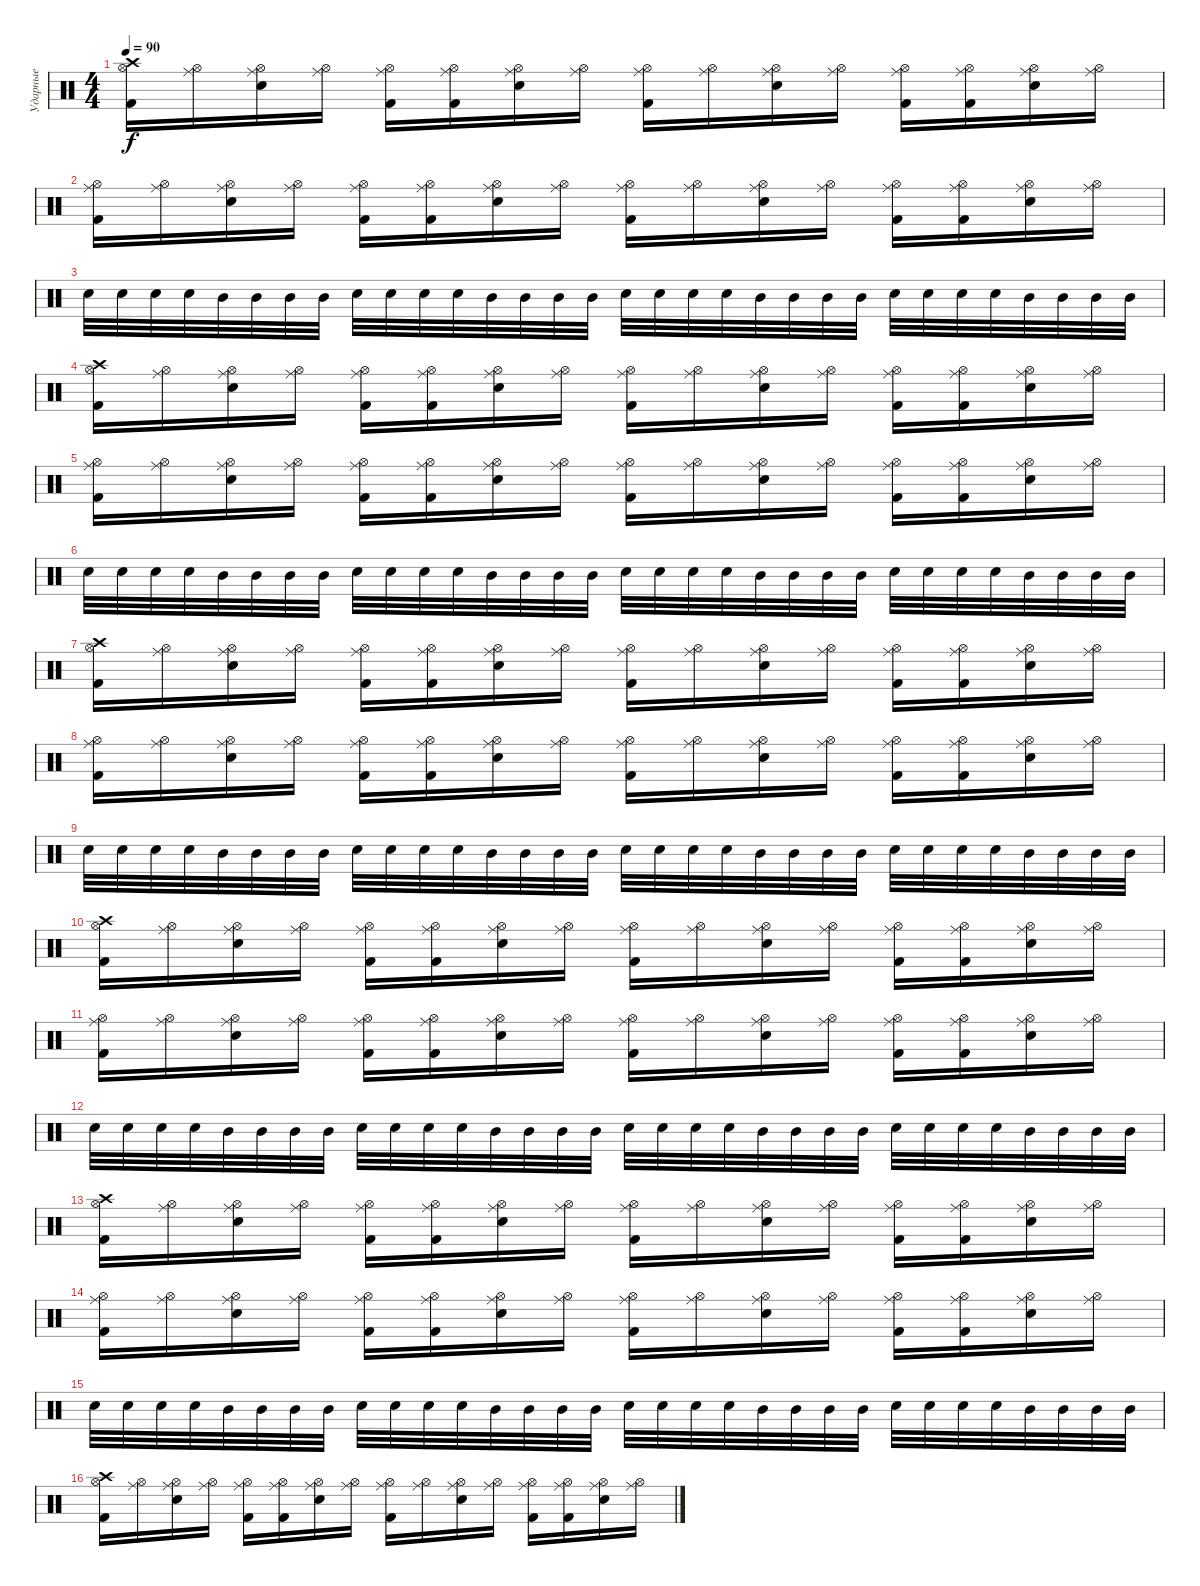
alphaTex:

\track ("Ударные" "Ударные") {instrument percussion}
\staff {score}
\articulation defaults
\ts (4 4)
\tempo 90
\clef neutral
\ks c
("Kick (hit) 2" "Crash high (hit)" "Hi-Hat (open)").16{dy f} ("Ride (middle)" "Hi-Hat (open)").16 ("Electric Snare (hit)" "Ride (middle)" "Hi-Hat (open)").16 ("Ride (middle)" "Hi-Hat (open)").16 ("Kick (hit) 2" "Ride (middle)" "Hi-Hat (open)").16 ("Kick (hit) 2" "Ride (middle)" "Hi-Hat (open)").16 ("Electric Snare (hit)" "Ride (middle)" "Hi-Hat (open)").16 ("Ride (middle)" "Hi-Hat (open)").16 ("Kick (hit) 2" "Ride (middle)" "Hi-Hat (open)").16 ("Ride (middle)" "Hi-Hat (open)").16 ("Electric Snare (hit)" "Ride (middle)" "Hi-Hat (open)").16 ("Ride (middle)" "Hi-Hat (open)").16 ("Kick (hit) 2" "Ride (middle)" "Hi-Hat (open)").16 ("Kick (hit) 2" "Ride (middle)" "Hi-Hat (open)").16 ("Electric Snare (hit)" "Ride (middle)" "Hi-Hat (open)").16 ("Ride (middle)" "Hi-Hat (open)").16 |
("Kick (hit) 2" "Ride (middle)" "Hi-Hat (open)").16 ("Ride (middle)" "Hi-Hat (open)").16 ("Electric Snare (hit)" "Ride (middle)" "Hi-Hat (open)").16 ("Ride (middle)" "Hi-Hat (open)").16 ("Kick (hit) 2" "Ride (middle)" "Hi-Hat (open)").16 ("Kick (hit) 2" "Ride (middle)" "Hi-Hat (open)").16 ("Electric Snare (hit)" "Ride (middle)" "Hi-Hat (open)").16 ("Ride (middle)" "Hi-Hat (open)").16 ("Kick (hit) 2" "Ride (middle)" "Hi-Hat (open)").16 ("Ride (middle)" "Hi-Hat (open)").16 ("Electric Snare (hit)" "Ride (middle)" "Hi-Hat (open)").16 ("Ride (middle)" "Hi-Hat (open)").16 ("Kick (hit) 2" "Ride (middle)" "Hi-Hat (open)").16 ("Kick (hit) 2" "Ride (middle)" "Hi-Hat (open)").16 ("Electric Snare (hit)" "Ride (middle)" "Hi-Hat (open)").16 ("Ride (middle)" "Hi-Hat (open)").16 |
"Electric Snare (hit)".32 "Electric Snare (hit)".32 "Electric Snare (hit)".32 "Electric Snare (hit)".32 "Mid Tom (hit)".32 "Mid Tom (hit)".32 "Mid Tom (hit)".32 "Mid Tom (hit)".32 "Electric Snare (hit)".32 "Electric Snare (hit)".32 "Electric Snare (hit)".32 "Electric Snare (hit)".32 "Mid Tom (hit)".32 "Mid Tom (hit)".32 "Mid Tom (hit)".32 "Mid Tom (hit)".32 "Electric Snare (hit)".32 "Electric Snare (hit)".32 "Electric Snare (hit)".32 "Electric Snare (hit)".32 "Mid Tom (hit)".32 "Mid Tom (hit)".32 "Mid Tom (hit)".32 "Mid Tom (hit)".32 "Electric Snare (hit)".32 "Electric Snare (hit)".32 "Electric Snare (hit)".32 "Electric Snare (hit)".32 "Mid Tom (hit)".32 "Mid Tom (hit)".32 "Mid Tom (hit)".32 "Mid Tom (hit)".32 |
("Kick (hit) 2" "Crash high (hit)" "Hi-Hat (open)").16 ("Ride (middle)" "Hi-Hat (open)").16 ("Electric Snare (hit)" "Ride (middle)" "Hi-Hat (open)").16 ("Ride (middle)" "Hi-Hat (open)").16 ("Kick (hit) 2" "Ride (middle)" "Hi-Hat (open)").16 ("Kick (hit) 2" "Ride (middle)" "Hi-Hat (open)").16 ("Electric Snare (hit)" "Ride (middle)" "Hi-Hat (open)").16 ("Ride (middle)" "Hi-Hat (open)").16 ("Kick (hit) 2" "Ride (middle)" "Hi-Hat (open)").16 ("Ride (middle)" "Hi-Hat (open)").16 ("Electric Snare (hit)" "Ride (middle)" "Hi-Hat (open)").16 ("Ride (middle)" "Hi-Hat (open)").16 ("Kick (hit) 2" "Ride (middle)" "Hi-Hat (open)").16 ("Kick (hit) 2" "Ride (middle)" "Hi-Hat (open)").16 ("Electric Snare (hit)" "Ride (middle)" "Hi-Hat (open)").16 ("Ride (middle)" "Hi-Hat (open)").16 |
("Kick (hit) 2" "Ride (middle)" "Hi-Hat (open)").16 ("Ride (middle)" "Hi-Hat (open)").16 ("Electric Snare (hit)" "Ride (middle)" "Hi-Hat (open)").16 ("Ride (middle)" "Hi-Hat (open)").16 ("Kick (hit) 2" "Ride (middle)" "Hi-Hat (open)").16 ("Kick (hit) 2" "Ride (middle)" "Hi-Hat (open)").16 ("Electric Snare (hit)" "Ride (middle)" "Hi-Hat (open)").16 ("Ride (middle)" "Hi-Hat (open)").16 ("Kick (hit) 2" "Ride (middle)" "Hi-Hat (open)").16 ("Ride (middle)" "Hi-Hat (open)").16 ("Electric Snare (hit)" "Ride (middle)" "Hi-Hat (open)").16 ("Ride (middle)" "Hi-Hat (open)").16 ("Kick (hit) 2" "Ride (middle)" "Hi-Hat (open)").16 ("Kick (hit) 2" "Ride (middle)" "Hi-Hat (open)").16 ("Electric Snare (hit)" "Ride (middle)" "Hi-Hat (open)").16 ("Ride (middle)" "Hi-Hat (open)").16 |
"Electric Snare (hit)".32 "Electric Snare (hit)".32 "Electric Snare (hit)".32 "Electric Snare (hit)".32 "Mid Tom (hit)".32 "Mid Tom (hit)".32 "Mid Tom (hit)".32 "Mid Tom (hit)".32 "Electric Snare (hit)".32 "Electric Snare (hit)".32 "Electric Snare (hit)".32 "Electric Snare (hit)".32 "Mid Tom (hit)".32 "Mid Tom (hit)".32 "Mid Tom (hit)".32 "Mid Tom (hit)".32 "Electric Snare (hit)".32 "Electric Snare (hit)".32 "Electric Snare (hit)".32 "Electric Snare (hit)".32 "Mid Tom (hit)".32 "Mid Tom (hit)".32 "Mid Tom (hit)".32 "Mid Tom (hit)".32 "Electric Snare (hit)".32 "Electric Snare (hit)".32 "Electric Snare (hit)".32 "Electric Snare (hit)".32 "Mid Tom (hit)".32 "Mid Tom (hit)".32 "Mid Tom (hit)".32 "Mid Tom (hit)".32 |
("Kick (hit) 2" "Crash high (hit)" "Hi-Hat (open)").16 ("Ride (middle)" "Hi-Hat (open)").16 ("Electric Snare (hit)" "Ride (middle)" "Hi-Hat (open)").16 ("Ride (middle)" "Hi-Hat (open)").16 ("Kick (hit) 2" "Ride (middle)" "Hi-Hat (open)").16 ("Kick (hit) 2" "Ride (middle)" "Hi-Hat (open)").16 ("Electric Snare (hit)" "Ride (middle)" "Hi-Hat (open)").16 ("Ride (middle)" "Hi-Hat (open)").16 ("Kick (hit) 2" "Ride (middle)" "Hi-Hat (open)").16 ("Ride (middle)" "Hi-Hat (open)").16 ("Electric Snare (hit)" "Ride (middle)" "Hi-Hat (open)").16 ("Ride (middle)" "Hi-Hat (open)").16 ("Kick (hit) 2" "Ride (middle)" "Hi-Hat (open)").16 ("Kick (hit) 2" "Ride (middle)" "Hi-Hat (open)").16 ("Electric Snare (hit)" "Ride (middle)" "Hi-Hat (open)").16 ("Ride (middle)" "Hi-Hat (open)").16 |
("Kick (hit) 2" "Ride (middle)" "Hi-Hat (open)").16 ("Ride (middle)" "Hi-Hat (open)").16 ("Electric Snare (hit)" "Ride (middle)" "Hi-Hat (open)").16 ("Ride (middle)" "Hi-Hat (open)").16 ("Kick (hit) 2" "Ride (middle)" "Hi-Hat (open)").16 ("Kick (hit) 2" "Ride (middle)" "Hi-Hat (open)").16 ("Electric Snare (hit)" "Ride (middle)" "Hi-Hat (open)").16 ("Ride (middle)" "Hi-Hat (open)").16 ("Kick (hit) 2" "Ride (middle)" "Hi-Hat (open)").16 ("Ride (middle)" "Hi-Hat (open)").16 ("Electric Snare (hit)" "Ride (middle)" "Hi-Hat (open)").16 ("Ride (middle)" "Hi-Hat (open)").16 ("Kick (hit) 2" "Ride (middle)" "Hi-Hat (open)").16 ("Kick (hit) 2" "Ride (middle)" "Hi-Hat (open)").16 ("Electric Snare (hit)" "Ride (middle)" "Hi-Hat (open)").16 ("Ride (middle)" "Hi-Hat (open)").16 |
"Electric Snare (hit)".32 "Electric Snare (hit)".32 "Electric Snare (hit)".32 "Electric Snare (hit)".32 "Mid Tom (hit)".32 "Mid Tom (hit)".32 "Mid Tom (hit)".32 "Mid Tom (hit)".32 "Electric Snare (hit)".32 "Electric Snare (hit)".32 "Electric Snare (hit)".32 "Electric Snare (hit)".32 "Mid Tom (hit)".32 "Mid Tom (hit)".32 "Mid Tom (hit)".32 "Mid Tom (hit)".32 "Electric Snare (hit)".32 "Electric Snare (hit)".32 "Electric Snare (hit)".32 "Electric Snare (hit)".32 "Mid Tom (hit)".32 "Mid Tom (hit)".32 "Mid Tom (hit)".32 "Mid Tom (hit)".32 "Electric Snare (hit)".32 "Electric Snare (hit)".32 "Electric Snare (hit)".32 "Electric Snare (hit)".32 "Mid Tom (hit)".32 "Mid Tom (hit)".32 "Mid Tom (hit)".32 "Mid Tom (hit)".32 |
("Kick (hit) 2" "Crash high (hit)" "Hi-Hat (open)").16 ("Ride (middle)" "Hi-Hat (open)").16 ("Electric Snare (hit)" "Ride (middle)" "Hi-Hat (open)").16 ("Ride (middle)" "Hi-Hat (open)").16 ("Kick (hit) 2" "Ride (middle)" "Hi-Hat (open)").16 ("Kick (hit) 2" "Ride (middle)" "Hi-Hat (open)").16 ("Electric Snare (hit)" "Ride (middle)" "Hi-Hat (open)").16 ("Ride (middle)" "Hi-Hat (open)").16 ("Kick (hit) 2" "Ride (middle)" "Hi-Hat (open)").16 ("Ride (middle)" "Hi-Hat (open)").16 ("Electric Snare (hit)" "Ride (middle)" "Hi-Hat (open)").16 ("Ride (middle)" "Hi-Hat (open)").16 ("Kick (hit) 2" "Ride (middle)" "Hi-Hat (open)").16 ("Kick (hit) 2" "Ride (middle)" "Hi-Hat (open)").16 ("Electric Snare (hit)" "Ride (middle)" "Hi-Hat (open)").16 ("Ride (middle)" "Hi-Hat (open)").16 |
("Kick (hit) 2" "Ride (middle)" "Hi-Hat (open)").16 ("Ride (middle)" "Hi-Hat (open)").16 ("Electric Snare (hit)" "Ride (middle)" "Hi-Hat (open)").16 ("Ride (middle)" "Hi-Hat (open)").16 ("Kick (hit) 2" "Ride (middle)" "Hi-Hat (open)").16 ("Kick (hit) 2" "Ride (middle)" "Hi-Hat (open)").16 ("Electric Snare (hit)" "Ride (middle)" "Hi-Hat (open)").16 ("Ride (middle)" "Hi-Hat (open)").16 ("Kick (hit) 2" "Ride (middle)" "Hi-Hat (open)").16 ("Ride (middle)" "Hi-Hat (open)").16 ("Electric Snare (hit)" "Ride (middle)" "Hi-Hat (open)").16 ("Ride (middle)" "Hi-Hat (open)").16 ("Kick (hit) 2" "Ride (middle)" "Hi-Hat (open)").16 ("Kick (hit) 2" "Ride (middle)" "Hi-Hat (open)").16 ("Electric Snare (hit)" "Ride (middle)" "Hi-Hat (open)").16 ("Ride (middle)" "Hi-Hat (open)").16 |
"Electric Snare (hit)".32 "Electric Snare (hit)".32 "Electric Snare (hit)".32 "Electric Snare (hit)".32 "Mid Tom (hit)".32 "Mid Tom (hit)".32 "Mid Tom (hit)".32 "Mid Tom (hit)".32 "Electric Snare (hit)".32 "Electric Snare (hit)".32 "Electric Snare (hit)".32 "Electric Snare (hit)".32 "Mid Tom (hit)".32 "Mid Tom (hit)".32 "Mid Tom (hit)".32 "Mid Tom (hit)".32 "Electric Snare (hit)".32 "Electric Snare (hit)".32 "Electric Snare (hit)".32 "Electric Snare (hit)".32 "Mid Tom (hit)".32 "Mid Tom (hit)".32 "Mid Tom (hit)".32 "Mid Tom (hit)".32 "Electric Snare (hit)".32 "Electric Snare (hit)".32 "Electric Snare (hit)".32 "Electric Snare (hit)".32 "Mid Tom (hit)".32 "Mid Tom (hit)".32 "Mid Tom (hit)".32 "Mid Tom (hit)".32 |
("Kick (hit) 2" "Crash high (hit)" "Hi-Hat (open)").16 ("Ride (middle)" "Hi-Hat (open)").16 ("Electric Snare (hit)" "Ride (middle)" "Hi-Hat (open)").16 ("Ride (middle)" "Hi-Hat (open)").16 ("Kick (hit) 2" "Ride (middle)" "Hi-Hat (open)").16 ("Kick (hit) 2" "Ride (middle)" "Hi-Hat (open)").16 ("Electric Snare (hit)" "Ride (middle)" "Hi-Hat (open)").16 ("Ride (middle)" "Hi-Hat (open)").16 ("Kick (hit) 2" "Ride (middle)" "Hi-Hat (open)").16 ("Ride (middle)" "Hi-Hat (open)").16 ("Electric Snare (hit)" "Ride (middle)" "Hi-Hat (open)").16 ("Ride (middle)" "Hi-Hat (open)").16 ("Kick (hit) 2" "Ride (middle)" "Hi-Hat (open)").16 ("Kick (hit) 2" "Ride (middle)" "Hi-Hat (open)").16 ("Electric Snare (hit)" "Ride (middle)" "Hi-Hat (open)").16 ("Ride (middle)" "Hi-Hat (open)").16 |
("Kick (hit) 2" "Ride (middle)" "Hi-Hat (open)").16 ("Ride (middle)" "Hi-Hat (open)").16 ("Electric Snare (hit)" "Ride (middle)" "Hi-Hat (open)").16 ("Ride (middle)" "Hi-Hat (open)").16 ("Kick (hit) 2" "Ride (middle)" "Hi-Hat (open)").16 ("Kick (hit) 2" "Ride (middle)" "Hi-Hat (open)").16 ("Electric Snare (hit)" "Ride (middle)" "Hi-Hat (open)").16 ("Ride (middle)" "Hi-Hat (open)").16 ("Kick (hit) 2" "Ride (middle)" "Hi-Hat (open)").16 ("Ride (middle)" "Hi-Hat (open)").16 ("Electric Snare (hit)" "Ride (middle)" "Hi-Hat (open)").16 ("Ride (middle)" "Hi-Hat (open)").16 ("Kick (hit) 2" "Ride (middle)" "Hi-Hat (open)").16 ("Kick (hit) 2" "Ride (middle)" "Hi-Hat (open)").16 ("Electric Snare (hit)" "Ride (middle)" "Hi-Hat (open)").16 ("Ride (middle)" "Hi-Hat (open)").16 |
"Electric Snare (hit)".32 "Electric Snare (hit)".32 "Electric Snare (hit)".32 "Electric Snare (hit)".32 "Mid Tom (hit)".32 "Mid Tom (hit)".32 "Mid Tom (hit)".32 "Mid Tom (hit)".32 "Electric Snare (hit)".32 "Electric Snare (hit)".32 "Electric Snare (hit)".32 "Electric Snare (hit)".32 "Mid Tom (hit)".32 "Mid Tom (hit)".32 "Mid Tom (hit)".32 "Mid Tom (hit)".32 "Electric Snare (hit)".32 "Electric Snare (hit)".32 "Electric Snare (hit)".32 "Electric Snare (hit)".32 "Mid Tom (hit)".32 "Mid Tom (hit)".32 "Mid Tom (hit)".32 "Mid Tom (hit)".32 "Electric Snare (hit)".32 "Electric Snare (hit)".32 "Electric Snare (hit)".32 "Electric Snare (hit)".32 "Mid Tom (hit)".32 "Mid Tom (hit)".32 "Mid Tom (hit)".32 "Mid Tom (hit)".32 |
("Kick (hit) 2" "Crash high (hit)" "Hi-Hat (open)").16 ("Ride (middle)" "Hi-Hat (open)").16 ("Electric Snare (hit)" "Ride (middle)" "Hi-Hat (open)").16 ("Ride (middle)" "Hi-Hat (open)").16 ("Kick (hit) 2" "Ride (middle)" "Hi-Hat (open)").16 ("Kick (hit) 2" "Ride (middle)" "Hi-Hat (open)").16 ("Electric Snare (hit)" "Ride (middle)" "Hi-Hat (open)").16 ("Ride (middle)" "Hi-Hat (open)").16 ("Kick (hit) 2" "Ride (middle)" "Hi-Hat (open)").16 ("Ride (middle)" "Hi-Hat (open)").16 ("Electric Snare (hit)" "Ride (middle)" "Hi-Hat (open)").16 ("Ride (middle)" "Hi-Hat (open)").16 ("Kick (hit) 2" "Ride (middle)" "Hi-Hat (open)").16 ("Kick (hit) 2" "Ride (middle)" "Hi-Hat (open)").16 ("Electric Snare (hit)" "Ride (middle)" "Hi-Hat (open)").16 ("Ride (middle)" "Hi-Hat (open)").16
